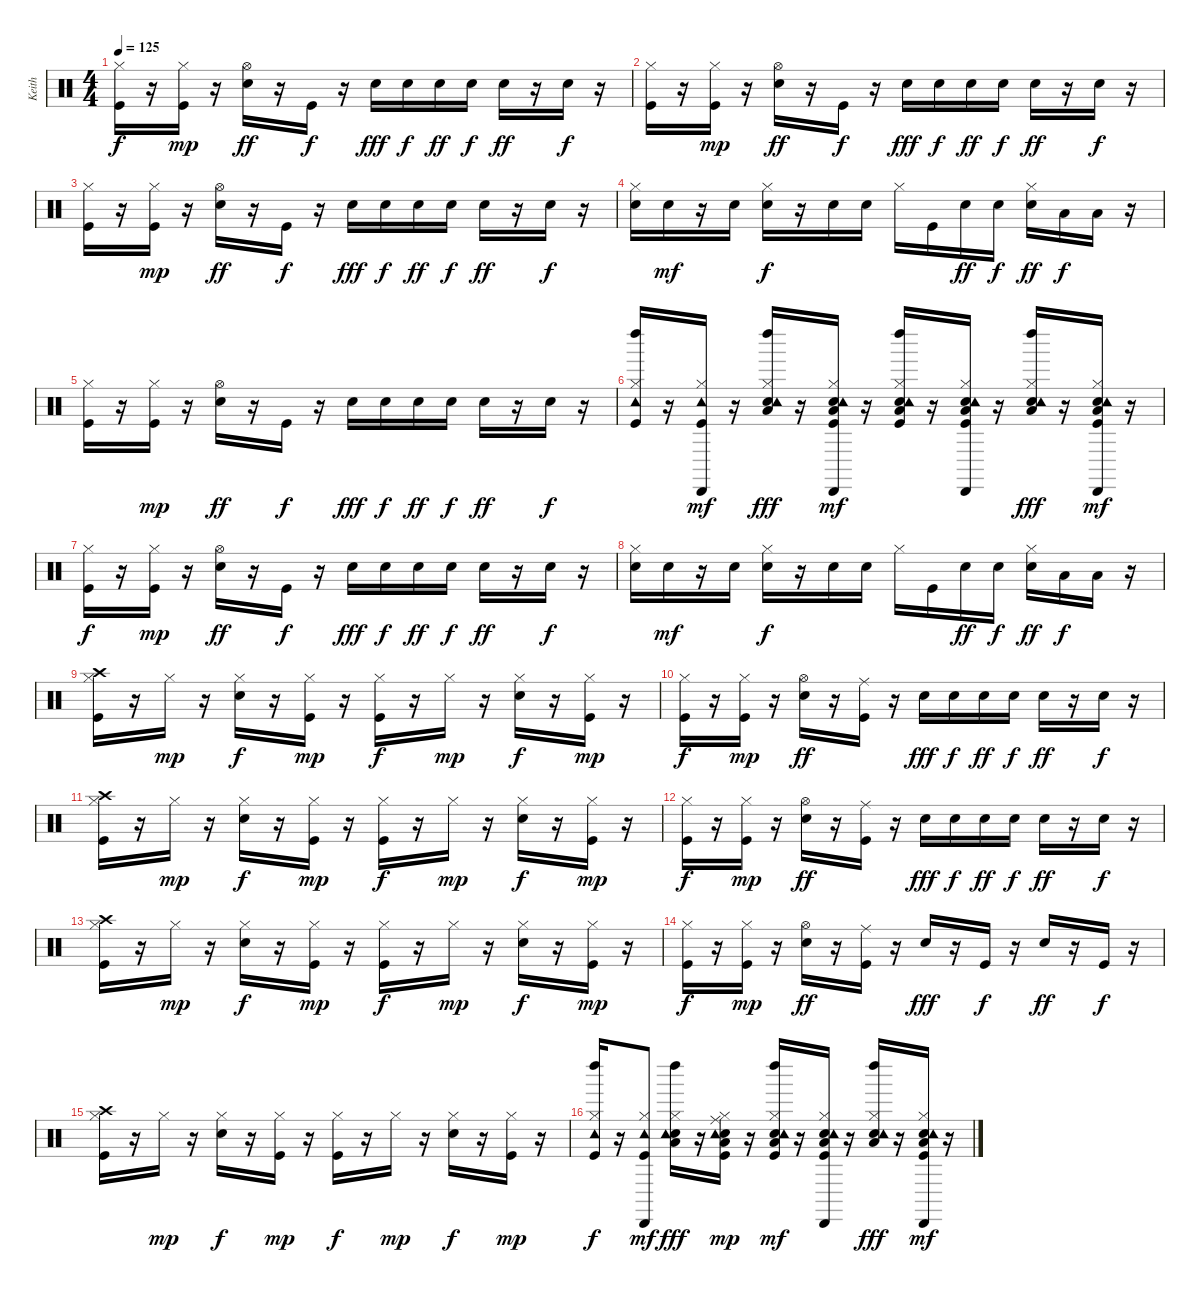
\track ("Keith" "Keith") {instrument percussion}
\staff {score}
\articulation defaults
\ts (4 4)
\tempo 125
\clef neutral
\ks c
("Kick (hit)" "Hi-Hat (closed)").16{dy f} r.16 ("Kick (hit)" "Hi-Hat (closed)").16{dy mp} r.16 ("Snare (hit) 2" "Hi-Hat (open)").16{dy ff} r.16 "Kick (hit)".16{dy f} r.16 "Snare (hit) 2".16{dy fff} "Snare (hit) 2".16{dy f} "Snare (hit) 2".16{dy ff} "Snare (hit) 2".16{dy f} "Snare (hit) 2".16{dy ff} r.16 "Snare (hit) 2".16{dy f} r.16 |
("Kick (hit)" "Hi-Hat (closed)").16 r.16 ("Kick (hit)" "Hi-Hat (closed)").16{dy mp} r.16 ("Snare (hit) 2" "Hi-Hat (open)").16{dy ff} r.16 "Kick (hit)".16{dy f} r.16 "Snare (hit) 2".16{dy fff} "Snare (hit) 2".16{dy f} "Snare (hit) 2".16{dy ff} "Snare (hit) 2".16{dy f} "Snare (hit) 2".16{dy ff} r.16 "Snare (hit) 2".16{dy f} r.16 |
("Kick (hit)" "Hi-Hat (closed)").16 r.16 ("Kick (hit)" "Hi-Hat (closed)").16{dy mp} r.16 ("Snare (hit) 2" "Hi-Hat (open)").16{dy ff} r.16 "Kick (hit)".16{dy f} r.16 "Snare (hit) 2".16{dy fff} "Snare (hit) 2".16{dy f} "Snare (hit) 2".16{dy ff} "Snare (hit) 2".16{dy f} "Snare (hit) 2".16{dy ff} r.16 "Snare (hit) 2".16{dy f} r.16 |
("Snare (hit) 2" "Hi-Hat (closed)").16 "Snare (hit) 2".16{dy mf} r.16 "Snare (hit) 2".16 ("Snare (hit) 2" "Hi-Hat (closed)").16{dy f} r.16 "Snare (hit) 2".16 "Snare (hit) 2".16 "Hi-Hat (closed)".16 "Kick (hit)".16 "Snare (hit) 2".16{dy ff} "Snare (hit) 2".16{dy f} ("Snare (hit) 2" "Hi-Hat (closed)").16{dy ff} "Low Tom (hit)".16{dy f} "Low Floor Tom (hit)".16 r.16 |
("Kick (hit)" "Hi-Hat (closed)").16 r.16 ("Kick (hit)" "Hi-Hat (closed)").16{dy mp} r.16 ("Snare (hit) 2" "Hi-Hat (open)").16{dy ff} r.16 "Kick (hit)".16{dy f} r.16 "Snare (hit) 2".16{dy fff} "Snare (hit) 2".16{dy f} "Snare (hit) 2".16{dy ff} "Snare (hit) 2".16{dy f} "Snare (hit) 2".16{dy ff} r.16 "Snare (hit) 2".16{dy f} r.16 |
("Kick (hit)" "Hi-Hat (closed)" "Tambourine (hit)" "Left Maraca (hit)").16 r.16 ("Kick (hit)" "Hi-Hat (closed)" "Tambourine (hit)" "Cabasa (hit)").16{dy mf} r.16 ("Snare (hit) 2" "Hi-Hat (closed)" "Low Floor Tom (hit)" "Tambourine (hit)" "Left Maraca (hit)").16{dy fff} r.16 ("Kick (hit)" "Snare (hit) 2" "Hi-Hat (closed)" "Low Floor Tom (hit)" "Tambourine (hit)" "Cabasa (hit)").16{dy mf} r.16 ("Kick (hit)" "Snare (hit) 2" "Hi-Hat (closed)" "Low Floor Tom (hit)" "Tambourine (hit)" "Left Maraca (hit)").16 r.16 ("Kick (hit)" "Snare (hit) 2" "Hi-Hat (closed)" "Low Floor Tom (hit)" "Tambourine (hit)" "Cabasa (hit)").16 r.16 ("Snare (hit) 2" "Hi-Hat (closed)" "Low Floor Tom (hit)" "Tambourine (hit)" "Left Maraca (hit)").16{dy fff} r.16 ("Kick (hit)" "Snare (hit) 2" "Hi-Hat (closed)" "Low Floor Tom (hit)" "Tambourine (hit)" "Cabasa (hit)").16{dy mf} r.16 |
("Kick (hit)" "Hi-Hat (closed)").16{dy f} r.16 ("Kick (hit)" "Hi-Hat (closed)").16{dy mp} r.16 ("Snare (hit) 2" "Hi-Hat (open)").16{dy ff} r.16 "Kick (hit)".16{dy f} r.16 "Snare (hit) 2".16{dy fff} "Snare (hit) 2".16{dy f} "Snare (hit) 2".16{dy ff} "Snare (hit) 2".16{dy f} "Snare (hit) 2".16{dy ff} r.16 "Snare (hit) 2".16{dy f} r.16 |
("Snare (hit) 2" "Hi-Hat (closed)").16 "Snare (hit) 2".16{dy mf} r.16 "Snare (hit) 2".16 ("Snare (hit) 2" "Hi-Hat (closed)").16{dy f} r.16 "Snare (hit) 2".16 "Snare (hit) 2".16 "Hi-Hat (closed)".16 "Kick (hit)".16 "Snare (hit) 2".16{dy ff} "Snare (hit) 2".16{dy f} ("Snare (hit) 2" "Hi-Hat (closed)").16{dy ff} "Low Tom (hit)".16{dy f} "Low Floor Tom (hit)".16 r.16 |
("Kick (hit)" "Hi-Hat (closed)" "Crash high (hit)").16 r.16 "Hi-Hat (closed)".16{dy mp} r.16 ("Snare (hit) 2" "Hi-Hat (closed)").16{dy f} r.16 ("Kick (hit)" "Hi-Hat (closed)").16{dy mp} r.16 ("Kick (hit)" "Hi-Hat (closed)").16{dy f} r.16 "Hi-Hat (closed)".16{dy mp} r.16 ("Snare (hit) 2" "Hi-Hat (closed)").16{dy f} r.16 ("Kick (hit)" "Hi-Hat (closed)").16{dy mp} r.16 |
("Kick (hit)" "Hi-Hat (closed)").16{dy f} r.16 ("Kick (hit)" "Hi-Hat (closed)").16{dy mp} r.16 ("Snare (hit) 2" "Hi-Hat (open)").16{dy ff} r.16 ("Kick (hit)" "Ride (middle)").16 r.16 "Snare (hit) 2".16{dy fff} "Snare (hit) 2".16{dy f} "Snare (hit) 2".16{dy ff} "Snare (hit) 2".16{dy f} "Snare (hit) 2".16{dy ff} r.16 "Snare (hit) 2".16{dy f} r.16 |
("Kick (hit)" "Hi-Hat (closed)" "Crash high (hit)").16 r.16 "Hi-Hat (closed)".16{dy mp} r.16 ("Snare (hit) 2" "Hi-Hat (closed)").16{dy f} r.16 ("Kick (hit)" "Hi-Hat (closed)").16{dy mp} r.16 ("Kick (hit)" "Hi-Hat (closed)").16{dy f} r.16 "Hi-Hat (closed)".16{dy mp} r.16 ("Snare (hit) 2" "Hi-Hat (closed)").16{dy f} r.16 ("Kick (hit)" "Hi-Hat (closed)").16{dy mp} r.16 |
("Kick (hit)" "Hi-Hat (closed)").16{dy f} r.16 ("Kick (hit)" "Hi-Hat (closed)").16{dy mp} r.16 ("Snare (hit) 2" "Hi-Hat (open)").16{dy ff} r.16 ("Kick (hit)" "Ride (middle)").16 r.16 "Snare (hit) 2".16{dy fff} "Snare (hit) 2".16{dy f} "Snare (hit) 2".16{dy ff} "Snare (hit) 2".16{dy f} "Snare (hit) 2".16{dy ff} r.16 "Snare (hit) 2".16{dy f} r.16 |
("Kick (hit)" "Hi-Hat (closed)" "Crash high (hit)").16 r.16 "Hi-Hat (closed)".16{dy mp} r.16 ("Snare (hit) 2" "Hi-Hat (closed)").16{dy f} r.16 ("Kick (hit)" "Hi-Hat (closed)").16{dy mp} r.16 ("Kick (hit)" "Hi-Hat (closed)").16{dy f} r.16 "Hi-Hat (closed)".16{dy mp} r.16 ("Snare (hit) 2" "Hi-Hat (closed)").16{dy f} r.16 ("Kick (hit)" "Hi-Hat (closed)").16{dy mp} r.16 |
("Kick (hit)" "Hi-Hat (closed)").16{dy f} r.16 ("Kick (hit)" "Hi-Hat (closed)").16{dy mp} r.16 ("Snare (hit) 2" "Hi-Hat (open)").16{dy ff} r.16 ("Kick (hit)" "Ride (middle)").16 r.16 "Snare (hit) 2".16{dy fff} r.16 "Kick (hit)".16{dy f} r.16 "Snare (hit) 2".16{dy ff} r.16 "Kick (hit)".16{dy f} r.16 |
("Kick (hit)" "Hi-Hat (closed)" "Crash high (hit)").16 r.16 "Hi-Hat (closed)".16{dy mp} r.16 ("Snare (hit) 2" "Hi-Hat (closed)").16{dy f} r.16 ("Kick (hit)" "Hi-Hat (closed)").16{dy mp} r.16 ("Kick (hit)" "Hi-Hat (closed)").16{dy f} r.16 "Hi-Hat (closed)".16{dy mp} r.16 ("Snare (hit) 2" "Hi-Hat (closed)").16{dy f} r.16 ("Kick (hit)" "Hi-Hat (closed)").16{dy mp} r.16 |
("Kick (hit)" "Hi-Hat (closed)" "Tambourine (hit)" "Left Maraca (hit)").16{dy f} r.16 ("Kick (hit)" "Hi-Hat (closed)" "Tambourine (hit)" "Cabasa (hit)").8{dy mf} ("Snare (hit) 2" "Hi-Hat (closed)" "Low Floor Tom (hit)" "Tambourine (hit)" "Left Maraca (hit)").16{dy fff} r.16 ("Kick (hit)" "Snare (hit) 2" "Hi-Hat (closed)" "Ride (middle)" "Low Floor Tom (hit)" "Tambourine (hit)").16{dy mp} r.16 ("Kick (hit)" "Snare (hit) 2" "Hi-Hat (closed)" "Low Floor Tom (hit)" "Tambourine (hit)" "Left Maraca (hit)").16{dy mf} r.16 ("Kick (hit)" "Snare (hit) 2" "Hi-Hat (closed)" "Low Floor Tom (hit)" "Tambourine (hit)" "Cabasa (hit)").16 r.16 ("Snare (hit) 2" "Hi-Hat (closed)" "Low Floor Tom (hit)" "Tambourine (hit)" "Left Maraca (hit)").16{dy fff} r.16 ("Kick (hit)" "Snare (hit) 2" "Hi-Hat (closed)" "Low Floor Tom (hit)" "Tambourine (hit)" "Cabasa (hit)").16{dy mf} r.16
